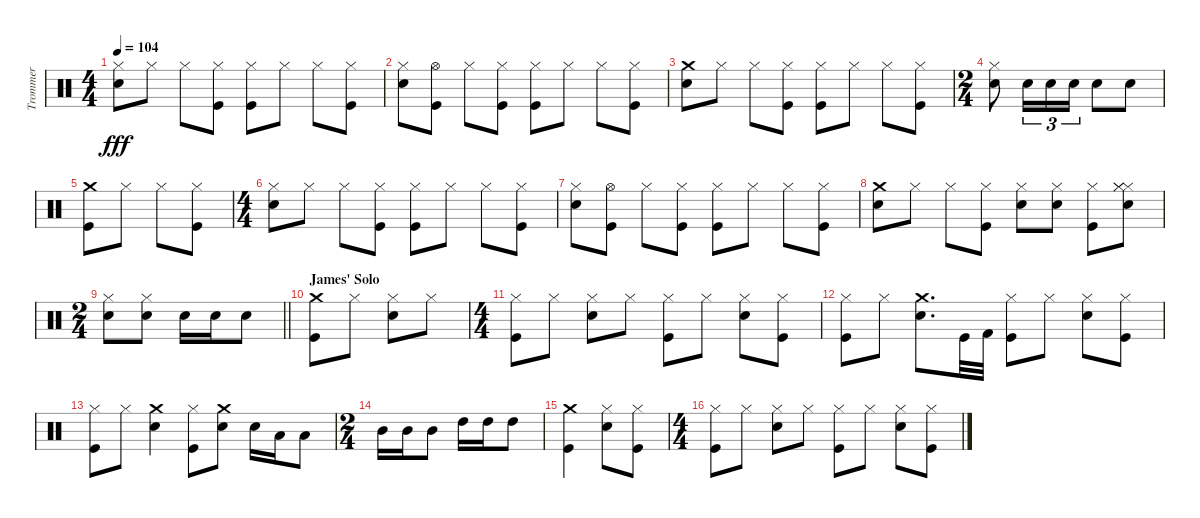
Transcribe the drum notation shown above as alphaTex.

\track ("Trommer" "Trommer") {instrument percussion}
\staff {score}
\articulation defaults
\ts (4 4)
\tempo 104
\clef neutral
\ks c
("Snare (hit) 2" "Hi-Hat (closed)").8{dy fff} "Hi-Hat (closed)".8 "Hi-Hat (closed)".8 ("Hi-Hat (closed)" "Kick (hit)").8 ("Hi-Hat (closed)" "Kick (hit)").8 "Hi-Hat (closed)".8 "Hi-Hat (closed)".8 ("Kick (hit)" "Hi-Hat (closed)").8 |
("Snare (hit) 2" "Hi-Hat (closed)").8 ("Kick (hit)" "Hi-Hat (open)").8 "Hi-Hat (closed)".8 ("Kick (hit)" "Hi-Hat (closed)").8 ("Hi-Hat (closed)" "Kick (hit)").8 "Hi-Hat (closed)".8 "Hi-Hat (closed)".8 ("Kick (hit)" "Hi-Hat (closed)").8 |
("Snare (hit) 2" "Crash medium (hit)").8 "Hi-Hat (closed)".8 "Hi-Hat (closed)".8 ("Kick (hit)" "Hi-Hat (closed)").8 ("Kick (hit)" "Hi-Hat (closed)").8 "Hi-Hat (closed)".8 "Hi-Hat (closed)".8 ("Kick (hit)" "Hi-Hat (closed)").8 |
\ts (2 4)
("Snare (hit) 2" "Hi-Hat (closed)").8 "Snare (hit) 2".16{tu (3 2)} "Snare (hit) 2".16{tu (3 2)} "Snare (hit) 2".16{tu (3 2)} "Snare (hit) 2".8 "Snare (hit) 2".8 |
("Crash medium (hit)" "Kick (hit)").8 "Hi-Hat (closed)".8 "Hi-Hat (closed)".8 ("Kick (hit)" "Hi-Hat (closed)").8 |
\ts (4 4)
("Snare (hit) 2" "Hi-Hat (closed)").8 "Hi-Hat (closed)".8 "Hi-Hat (closed)".8 ("Kick (hit)" "Hi-Hat (closed)").8 ("Hi-Hat (closed)" "Kick (hit)").8 "Hi-Hat (closed)".8 "Hi-Hat (closed)".8 ("Kick (hit)" "Hi-Hat (closed)").8 |
("Snare (hit) 2" "Hi-Hat (closed)").8 ("Kick (hit)" "Hi-Hat (open)").8 "Hi-Hat (closed)".8 ("Kick (hit)" "Hi-Hat (closed)").8 ("Hi-Hat (closed)" "Kick (hit)").8 "Hi-Hat (closed)".8 "Hi-Hat (closed)".8 ("Kick (hit)" "Hi-Hat (closed)").8 |
("Snare (hit) 2" "Crash medium (hit)").8 "Hi-Hat (closed)".8 "Hi-Hat (closed)".8 ("Kick (hit)" "Hi-Hat (closed)").8 ("Snare (hit) 2" "Hi-Hat (closed)").8 ("Snare (hit) 2" "Hi-Hat (closed)").8 ("Hi-Hat (closed)" "Kick (hit)").8 ("Hi-Hat (closed)" "Snare (hit) 2" "Hi-Hat (closed)" "Hi-Hat (closed)").8 |
\ts (2 4)
\barLineRight lightlight
("Snare (hit) 2" "Hi-Hat (closed)").8 ("Snare (hit) 2" "Hi-Hat (closed)").8 "Snare (hit) 2".16 "Snare (hit) 2".16 "Snare (hit) 2".8 |
\section ("" "James' Solo")
("Kick (hit)" "Crash medium (hit)").8 "Hi-Hat (closed)".8 ("Snare (hit) 2" "Hi-Hat (closed)").8 "Hi-Hat (closed)".8 |
\ts (4 4)
("Kick (hit)" "Hi-Hat (closed)").8 "Hi-Hat (closed)".8 ("Snare (hit) 2" "Hi-Hat (closed)").8 "Hi-Hat (closed)".8 ("Hi-Hat (closed)" "Kick (hit)").8 "Hi-Hat (closed)".8 ("Snare (hit) 2" "Hi-Hat (closed)").8 ("Kick (hit)" "Hi-Hat (closed)").8 |
("Hi-Hat (closed)" "Kick (hit)").8 "Hi-Hat (closed)".8 ("Snare (hit) 2" "Crash medium (hit)").8{d} "Kick (hit)".32 "Kick (hit) 2".32 ("Hi-Hat (closed)" "Kick (hit)").8 "Hi-Hat (closed)".8 ("Snare (hit) 2" "Hi-Hat (closed)").8 ("Kick (hit)" "Hi-Hat (closed)").8 |
("Kick (hit)" "Hi-Hat (closed)").8 "Hi-Hat (closed)".8 ("Snare (hit) 2" "Crash medium (hit)").4 ("Kick (hit)" "Hi-Hat (closed)").8 ("Crash medium (hit)" "Snare (hit) 2").8 "Snare (hit) 2".16 "Low Tom (hit)".16 "Low Tom (hit)".8 |
\ts (2 4)
"Mid Tom (hit)".16 "Mid Tom (hit)".16 "Mid Tom (hit)".8 "High Tom (hit)".16 "High Tom (hit)".16 "High Tom (hit)".8 |
("Kick (hit)" "Crash medium (hit)").4 ("Snare (hit) 2" "Hi-Hat (closed)").8 ("Hi-Hat (closed)" "Kick (hit)").8 |
\ts (4 4)
("Kick (hit)" "Hi-Hat (closed)").8 "Hi-Hat (closed)".8 ("Snare (hit) 2" "Hi-Hat (closed)").8 "Hi-Hat (closed)".8 ("Kick (hit)" "Hi-Hat (closed)").8 "Hi-Hat (closed)".8 ("Hi-Hat (closed)" "Snare (hit) 2").8 ("Kick (hit)" "Hi-Hat (closed)").8
